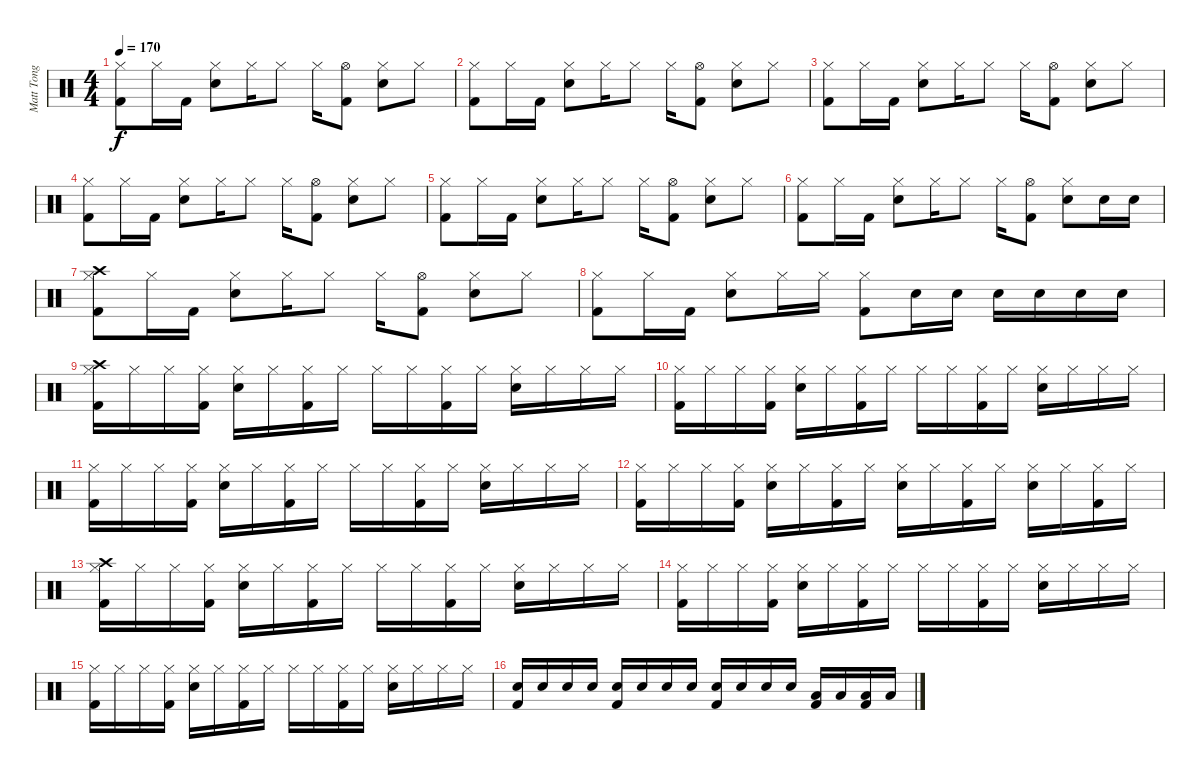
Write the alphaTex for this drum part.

\track ("Matt Tong" "Matt Tong") {instrument percussion}
\staff {score}
\articulation defaults
\ts (4 4)
\tempo 170
\clef neutral
\ks c
("Hi-Hat (closed)" "Kick (hit) 2").8{dy f} "Hi-Hat (closed)".16 "Kick (hit) 2".16 ("Hi-Hat (closed)" "Electric Snare (hit)").8 "Hi-Hat (closed)".16 "Hi-Hat (closed)".8 "Hi-Hat (closed)".16 ("Hi-Hat (open)" "Kick (hit) 2").8 ("Hi-Hat (closed)" "Electric Snare (hit)").8 "Hi-Hat (closed)".8 |
("Hi-Hat (closed)" "Kick (hit) 2").8 "Hi-Hat (closed)".16 "Kick (hit) 2".16 ("Hi-Hat (closed)" "Electric Snare (hit)").8 "Hi-Hat (closed)".16 "Hi-Hat (closed)".8 "Hi-Hat (closed)".16 ("Hi-Hat (open)" "Kick (hit) 2").8 ("Hi-Hat (closed)" "Electric Snare (hit)").8 "Hi-Hat (closed)".8 |
("Hi-Hat (closed)" "Kick (hit) 2").8 "Hi-Hat (closed)".16 "Kick (hit) 2".16 ("Hi-Hat (closed)" "Electric Snare (hit)").8 "Hi-Hat (closed)".16 "Hi-Hat (closed)".8 "Hi-Hat (closed)".16 ("Hi-Hat (open)" "Kick (hit) 2").8 ("Hi-Hat (closed)" "Electric Snare (hit)").8 "Hi-Hat (closed)".8 |
("Hi-Hat (closed)" "Kick (hit) 2").8 "Hi-Hat (closed)".16 "Kick (hit) 2".16 ("Hi-Hat (closed)" "Electric Snare (hit)").8 "Hi-Hat (closed)".16 "Hi-Hat (closed)".8 "Hi-Hat (closed)".16 ("Hi-Hat (open)" "Kick (hit) 2").8 ("Hi-Hat (closed)" "Electric Snare (hit)").8 "Hi-Hat (closed)".8 |
("Hi-Hat (closed)" "Kick (hit) 2").8 "Hi-Hat (closed)".16 "Kick (hit) 2".16 ("Hi-Hat (closed)" "Electric Snare (hit)").8 "Hi-Hat (closed)".16 "Hi-Hat (closed)".8 "Hi-Hat (closed)".16 ("Hi-Hat (open)" "Kick (hit) 2").8 ("Hi-Hat (closed)" "Electric Snare (hit)").8 "Hi-Hat (closed)".8 |
("Hi-Hat (closed)" "Kick (hit) 2").8 "Hi-Hat (closed)".16 "Kick (hit) 2".16 ("Hi-Hat (closed)" "Electric Snare (hit)").8 "Hi-Hat (closed)".16 "Hi-Hat (closed)".8 "Hi-Hat (closed)".16 ("Hi-Hat (open)" "Kick (hit) 2").8 ("Hi-Hat (closed)" "Electric Snare (hit)").8 "Electric Snare (hit)".16 "Electric Snare (hit)".16 |
("Crash high (hit)" "Hi-Hat (closed)" "Kick (hit) 2").8 "Hi-Hat (closed)".16 "Kick (hit) 2".16 ("Hi-Hat (closed)" "Electric Snare (hit)").8 "Hi-Hat (closed)".16 "Hi-Hat (closed)".8 "Hi-Hat (closed)".16 ("Hi-Hat (open)" "Kick (hit) 2").8 ("Hi-Hat (closed)" "Electric Snare (hit)").8 "Hi-Hat (closed)".8 |
("Hi-Hat (closed)" "Kick (hit) 2").8 "Hi-Hat (closed)".16 "Kick (hit) 2".16 ("Hi-Hat (closed)" "Electric Snare (hit)").8 "Hi-Hat (closed)".16 "Hi-Hat (closed)".16 ("Hi-Hat (closed)" "Kick (hit) 2").8 "Electric Snare (hit)".16 "Electric Snare (hit)".16 "Electric Snare (hit)".16 "Electric Snare (hit)".16 "Electric Snare (hit)".16 "Electric Snare (hit)".16 |
("Crash high (hit)" "Hi-Hat (closed)" "Kick (hit) 2").16 "Hi-Hat (closed)".16 "Hi-Hat (closed)".16 ("Hi-Hat (closed)" "Kick (hit) 2").16 ("Hi-Hat (closed)" "Electric Snare (hit)").16 "Hi-Hat (closed)".16 ("Hi-Hat (closed)" "Kick (hit) 2").16 "Hi-Hat (closed)".16 "Hi-Hat (closed)".16 "Hi-Hat (closed)".16 ("Hi-Hat (closed)" "Kick (hit) 2").16 "Hi-Hat (closed)".16 ("Hi-Hat (closed)" "Electric Snare (hit)").16 "Hi-Hat (closed)".16 "Hi-Hat (closed)".16 "Hi-Hat (closed)".16 |
("Hi-Hat (closed)" "Kick (hit) 2").16 "Hi-Hat (closed)".16 "Hi-Hat (closed)".16 ("Hi-Hat (closed)" "Kick (hit) 2").16 ("Hi-Hat (closed)" "Electric Snare (hit)").16 "Hi-Hat (closed)".16 ("Hi-Hat (closed)" "Kick (hit) 2").16 "Hi-Hat (closed)".16 "Hi-Hat (closed)".16 "Hi-Hat (closed)".16 ("Hi-Hat (closed)" "Kick (hit) 2").16 "Hi-Hat (closed)".16 ("Hi-Hat (closed)" "Electric Snare (hit)").16 "Hi-Hat (closed)".16 "Hi-Hat (closed)".16 "Hi-Hat (closed)".16 |
("Hi-Hat (closed)" "Kick (hit) 2").16 "Hi-Hat (closed)".16 "Hi-Hat (closed)".16 ("Hi-Hat (closed)" "Kick (hit) 2").16 ("Hi-Hat (closed)" "Electric Snare (hit)").16 "Hi-Hat (closed)".16 ("Hi-Hat (closed)" "Kick (hit) 2").16 "Hi-Hat (closed)".16 "Hi-Hat (closed)".16 "Hi-Hat (closed)".16 ("Hi-Hat (closed)" "Kick (hit) 2").16 "Hi-Hat (closed)".16 ("Hi-Hat (closed)" "Electric Snare (hit)").16 "Hi-Hat (closed)".16 "Hi-Hat (closed)".16 "Hi-Hat (closed)".16 |
("Hi-Hat (closed)" "Kick (hit) 2").16 "Hi-Hat (closed)".16 "Hi-Hat (closed)".16 ("Hi-Hat (closed)" "Kick (hit) 2").16 ("Hi-Hat (closed)" "Electric Snare (hit)").16 "Hi-Hat (closed)".16 ("Hi-Hat (closed)" "Kick (hit) 2").16 "Hi-Hat (closed)".16 ("Hi-Hat (closed)" "Electric Snare (hit)").16 "Hi-Hat (closed)".16 ("Hi-Hat (closed)" "Kick (hit) 2").16 "Hi-Hat (closed)".16 ("Hi-Hat (closed)" "Electric Snare (hit)").16 "Hi-Hat (closed)".16 ("Hi-Hat (closed)" "Kick (hit) 2").16 "Hi-Hat (closed)".16 |
("Crash high (hit)" "Hi-Hat (closed)" "Kick (hit) 2").16 "Hi-Hat (closed)".16 "Hi-Hat (closed)".16 ("Hi-Hat (closed)" "Kick (hit) 2").16 ("Hi-Hat (closed)" "Electric Snare (hit)").16 "Hi-Hat (closed)".16 ("Hi-Hat (closed)" "Kick (hit) 2").16 "Hi-Hat (closed)".16 "Hi-Hat (closed)".16 "Hi-Hat (closed)".16 ("Hi-Hat (closed)" "Kick (hit) 2").16 "Hi-Hat (closed)".16 ("Hi-Hat (closed)" "Electric Snare (hit)").16 "Hi-Hat (closed)".16 "Hi-Hat (closed)".16 "Hi-Hat (closed)".16 |
("Hi-Hat (closed)" "Kick (hit) 2").16 "Hi-Hat (closed)".16 "Hi-Hat (closed)".16 ("Hi-Hat (closed)" "Kick (hit) 2").16 ("Hi-Hat (closed)" "Electric Snare (hit)").16 "Hi-Hat (closed)".16 ("Hi-Hat (closed)" "Kick (hit) 2").16 "Hi-Hat (closed)".16 "Hi-Hat (closed)".16 "Hi-Hat (closed)".16 ("Hi-Hat (closed)" "Kick (hit) 2").16 "Hi-Hat (closed)".16 ("Hi-Hat (closed)" "Electric Snare (hit)").16 "Hi-Hat (closed)".16 "Hi-Hat (closed)".16 "Hi-Hat (closed)".16 |
("Hi-Hat (closed)" "Kick (hit) 2").16 "Hi-Hat (closed)".16 "Hi-Hat (closed)".16 ("Hi-Hat (closed)" "Kick (hit) 2").16 ("Hi-Hat (closed)" "Electric Snare (hit)").16 "Hi-Hat (closed)".16 ("Hi-Hat (closed)" "Kick (hit) 2").16 "Hi-Hat (closed)".16 "Hi-Hat (closed)".16 "Hi-Hat (closed)".16 ("Hi-Hat (closed)" "Kick (hit) 2").16 "Hi-Hat (closed)".16 ("Hi-Hat (closed)" "Electric Snare (hit)").16 "Hi-Hat (closed)".16 "Hi-Hat (closed)".16 "Hi-Hat (closed)".16 |
("Electric Snare (hit)" "Kick (hit) 2").16 "Electric Snare (hit)".16 "Electric Snare (hit)".16 "Electric Snare (hit)".16 ("Electric Snare (hit)" "Kick (hit) 2").16 "Electric Snare (hit)".16 "Electric Snare (hit)".16 "Electric Snare (hit)".16 ("Electric Snare (hit)" "Kick (hit) 2").16 "Electric Snare (hit)".16 "Electric Snare (hit)".16 "Electric Snare (hit)".16 ("Low Tom (hit)" "Kick (hit) 2").16 "Low Tom (hit)".16 ("Low Tom (hit)" "Kick (hit) 2").16 "Low Tom (hit)".16
